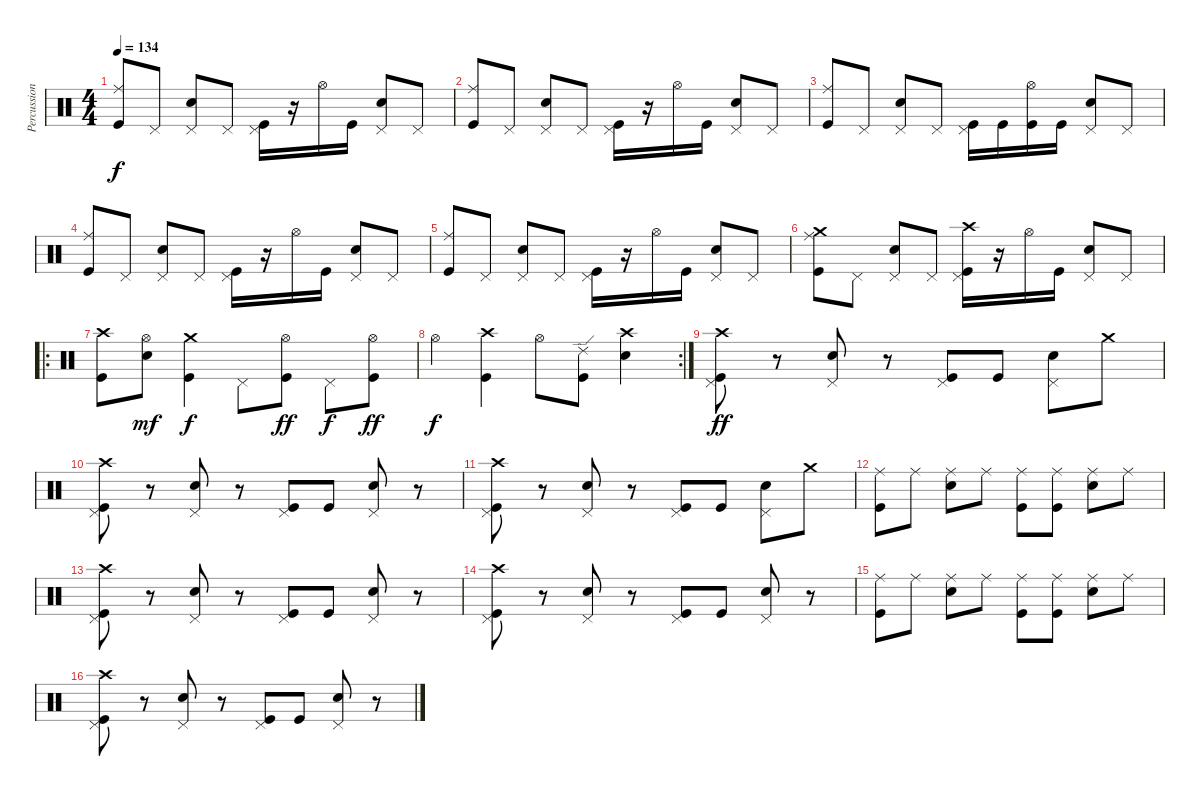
\track ("Percussion" "Percussion") {instrument percussion}
\staff {score}
\articulation defaults
\ts (4 4)
\tempo 134
\clef neutral
\ks c
("Ride (middle)" "Kick (hit)").8{dy f} "Pedal Hi-Hat (hit)".8 ("Pedal Hi-Hat (hit)" "Electric Snare (hit)").8 "Pedal Hi-Hat (hit)".8 ("Pedal Hi-Hat (hit)" "Kick (hit)").16 r.16 "Hi-Hat (open)".16 "Kick (hit)".16 ("Pedal Hi-Hat (hit)" "Electric Snare (hit)").8 "Pedal Hi-Hat (hit)".8 |
("Ride (middle)" "Kick (hit)").8 "Pedal Hi-Hat (hit)".8 ("Pedal Hi-Hat (hit)" "Electric Snare (hit)").8 "Pedal Hi-Hat (hit)".8 ("Pedal Hi-Hat (hit)" "Kick (hit)").16 r.16 "Hi-Hat (open)".16 "Kick (hit)".16 ("Pedal Hi-Hat (hit)" "Electric Snare (hit)").8 "Pedal Hi-Hat (hit)".8 |
("Ride (middle)" "Kick (hit)").8 "Pedal Hi-Hat (hit)".8 ("Pedal Hi-Hat (hit)" "Electric Snare (hit)").8 "Pedal Hi-Hat (hit)".8 ("Pedal Hi-Hat (hit)" "Kick (hit)").16 "Kick (hit)".16 ("Hi-Hat (open)" "Kick (hit)").16 "Kick (hit)".16 ("Pedal Hi-Hat (hit)" "Electric Snare (hit)").8 "Pedal Hi-Hat (hit)".8 |
("Ride (middle)" "Kick (hit)").8 "Pedal Hi-Hat (hit)".8 ("Pedal Hi-Hat (hit)" "Electric Snare (hit)").8 "Pedal Hi-Hat (hit)".8 ("Pedal Hi-Hat (hit)" "Kick (hit)").16 r.16 "Hi-Hat (open)".16 "Kick (hit)".16 ("Pedal Hi-Hat (hit)" "Electric Snare (hit)").8 "Pedal Hi-Hat (hit)".8 |
("Ride (middle)" "Kick (hit)").8 "Pedal Hi-Hat (hit)".8 ("Pedal Hi-Hat (hit)" "Electric Snare (hit)").8 "Pedal Hi-Hat (hit)".8 ("Pedal Hi-Hat (hit)" "Kick (hit)").16 r.16 "Hi-Hat (open)".16 "Kick (hit)".16 ("Pedal Hi-Hat (hit)" "Electric Snare (hit)").8 "Pedal Hi-Hat (hit)".8 |
("Crash medium (hit)" "Ride (middle)" "Kick (hit)").8 "Pedal Hi-Hat (hit)".8 ("Pedal Hi-Hat (hit)" "Electric Snare (hit)").8 "Pedal Hi-Hat (hit)".8 ("Crash high (hit)" "Pedal Hi-Hat (hit)" "Kick (hit)").16 r.16 "Hi-Hat (open)".16 "Kick (hit)".16 ("Pedal Hi-Hat (hit)" "Electric Snare (hit)").8 "Pedal Hi-Hat (hit)".8 |
\ro
("Crash high (hit)" "Kick (hit)").8 ("Hi-Hat (open)" "Electric Snare (hit)").8{dy mf} ("Crash medium (hit)" "Kick (hit)").4{dy f} "Pedal Hi-Hat (hit)".8 ("Hi-Hat (open)" "Kick (hit)").8{dy ff} "Pedal Hi-Hat (hit)".8{dy f} ("Hi-Hat (open)" "Kick (hit)").8{dy ff} |
\rc 2 "Hi-Hat (open)".4{dy f}
("Crash high (hit)" "Kick (hit)").4 "Hi-Hat (open)".8 ("Ride (edge) 2" "Kick (hit)").8 ("Crash high (hit)" "Electric Snare (hit)").4 |
("Crash high (hit)" "Kick (hit)" "Pedal Hi-Hat (hit)").8{dy ff} r.8 ("Electric Snare (hit)" "Pedal Hi-Hat (hit)").8 r.8 ("Kick (hit)" "Pedal Hi-Hat (hit)").8 "Kick (hit)".8 ("Electric Snare (hit)" "Pedal Hi-Hat (hit)").8 "Crash medium (hit)".8 |
("Crash high (hit)" "Kick (hit)" "Pedal Hi-Hat (hit)").8 r.8 ("Electric Snare (hit)" "Pedal Hi-Hat (hit)").8 r.8 ("Kick (hit)" "Pedal Hi-Hat (hit)").8 "Kick (hit)".8 ("Electric Snare (hit)" "Pedal Hi-Hat (hit)").8 r.8 |
("Crash high (hit)" "Kick (hit)" "Pedal Hi-Hat (hit)").8 r.8 ("Electric Snare (hit)" "Pedal Hi-Hat (hit)").8 r.8 ("Kick (hit)" "Pedal Hi-Hat (hit)").8 "Kick (hit)".8 ("Electric Snare (hit)" "Pedal Hi-Hat (hit)").8 "Crash medium (hit)".8 |
("Kick (hit)" "Ride (middle)").8 "Ride (middle)".8 ("Electric Snare (hit)" "Ride (middle)").8 "Ride (middle)".8 ("Kick (hit)" "Ride (middle)").8 ("Kick (hit)" "Ride (middle)").8 ("Electric Snare (hit)" "Ride (middle)").8 "Ride (middle)".8 |
("Crash high (hit)" "Kick (hit)" "Pedal Hi-Hat (hit)").8 r.8 ("Electric Snare (hit)" "Pedal Hi-Hat (hit)").8 r.8 ("Kick (hit)" "Pedal Hi-Hat (hit)").8 "Kick (hit)".8 ("Electric Snare (hit)" "Pedal Hi-Hat (hit)").8 r.8 |
("Crash high (hit)" "Kick (hit)" "Pedal Hi-Hat (hit)").8 r.8 ("Electric Snare (hit)" "Pedal Hi-Hat (hit)").8 r.8 ("Kick (hit)" "Pedal Hi-Hat (hit)").8 "Kick (hit)".8 ("Electric Snare (hit)" "Pedal Hi-Hat (hit)").8 r.8 |
("Kick (hit)" "Ride (middle)").8 "Ride (middle)".8 ("Electric Snare (hit)" "Ride (middle)").8 "Ride (middle)".8 ("Kick (hit)" "Ride (middle)").8 ("Kick (hit)" "Ride (middle)").8 ("Electric Snare (hit)" "Ride (middle)").8 "Ride (middle)".8 |
("Crash high (hit)" "Kick (hit)" "Pedal Hi-Hat (hit)").8 r.8 ("Electric Snare (hit)" "Pedal Hi-Hat (hit)").8 r.8 ("Kick (hit)" "Pedal Hi-Hat (hit)").8 "Kick (hit)".8 ("Electric Snare (hit)" "Pedal Hi-Hat (hit)").8 r.8
